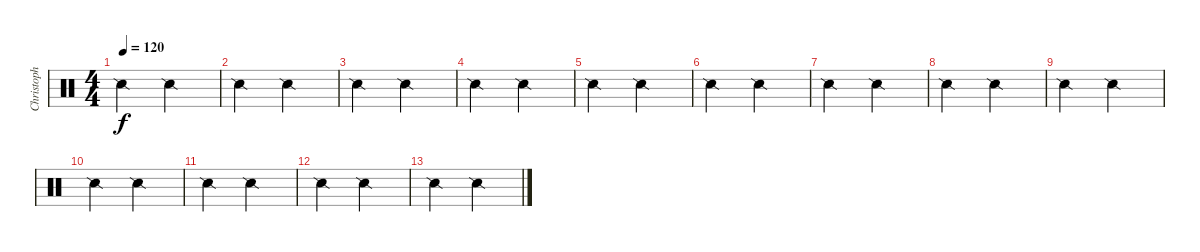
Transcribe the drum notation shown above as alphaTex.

\track ("Christoph \"Doom\" Schneider (Drums" "Christoph ") {instrument percussion}
\staff {score}
\articulation defaults
\ts (4 4)
\tempo 120
\clef neutral
\ks c "Snare (side stick) 2".2{dy f} "Snare (side stick) 2".2
|
"Snare (side stick) 2".2 "Snare (side stick) 2".2 |
"Snare (side stick) 2".2 "Snare (side stick) 2".2 |
"Snare (side stick) 2".2 "Snare (side stick) 2".2 |
"Snare (side stick) 2".2 "Snare (side stick) 2".2 |
"Snare (side stick) 2".2 "Snare (side stick) 2".2 |
"Snare (side stick) 2".2 "Snare (side stick) 2".2 |
"Snare (side stick) 2".2 "Snare (side stick) 2".2 |
"Snare (side stick) 2".2 "Snare (side stick) 2".2 |
"Snare (side stick) 2".2 "Snare (side stick) 2".2 |
"Snare (side stick) 2".2 "Snare (side stick) 2".2 |
"Snare (side stick) 2".2 "Snare (side stick) 2".2 |
"Snare (side stick) 2".2 "Snare (side stick) 2".2
